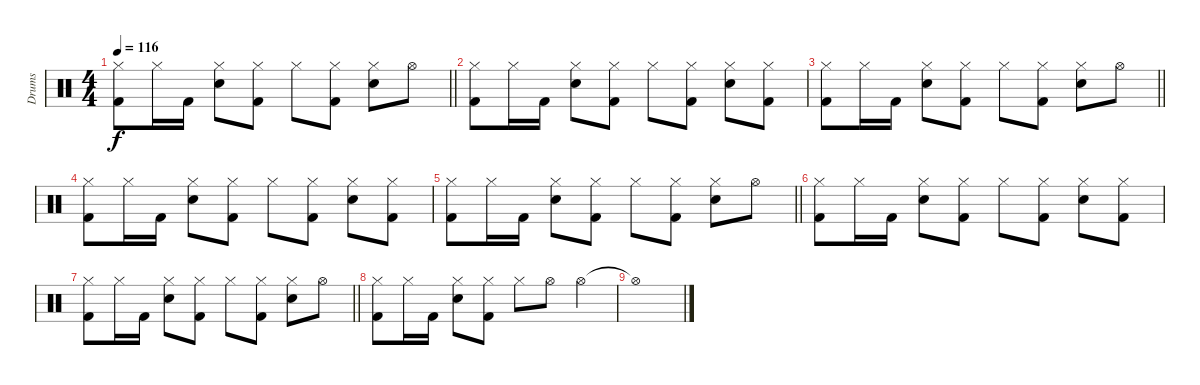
\track ("Drums" "Drums") {instrument percussion}
\staff {score}
\articulation defaults
\ts (4 4)
\tempo 116
\clef neutral
\barLineRight lightlight
\ks c
("Hi-Hat (closed)" "Kick (hit) 2").8{dy f} "Hi-Hat (closed)".16 "Kick (hit) 2".16 ("Hi-Hat (closed)" "Snare (hit) 2").8 ("Hi-Hat (closed)" "Kick (hit) 2").8 "Hi-Hat (closed)".8 ("Hi-Hat (closed)" "Kick (hit) 2").8 ("Hi-Hat (closed)" "Snare (hit) 2").8 "Hi-Hat (open)".8 |
("Hi-Hat (closed)" "Kick (hit) 2").8 "Hi-Hat (closed)".16 "Kick (hit) 2".16 ("Hi-Hat (closed)" "Snare (hit) 2").8 ("Hi-Hat (closed)" "Kick (hit) 2").8 "Hi-Hat (closed)".8 ("Hi-Hat (closed)" "Kick (hit) 2").8 ("Hi-Hat (closed)" "Snare (hit) 2").8 ("Hi-Hat (closed)" "Kick (hit) 2").8 |
\barLineRight lightlight
("Hi-Hat (closed)" "Kick (hit) 2").8 "Hi-Hat (closed)".16 "Kick (hit) 2".16 ("Hi-Hat (closed)" "Snare (hit) 2").8 ("Hi-Hat (closed)" "Kick (hit) 2").8 "Hi-Hat (closed)".8 ("Hi-Hat (closed)" "Kick (hit) 2").8 ("Hi-Hat (closed)" "Snare (hit) 2").8 "Hi-Hat (open)".8 |
("Hi-Hat (closed)" "Kick (hit) 2").8 "Hi-Hat (closed)".16 "Kick (hit) 2".16 ("Hi-Hat (closed)" "Snare (hit) 2").8 ("Hi-Hat (closed)" "Kick (hit) 2").8 "Hi-Hat (closed)".8 ("Hi-Hat (closed)" "Kick (hit) 2").8 ("Hi-Hat (closed)" "Snare (hit) 2").8 ("Hi-Hat (closed)" "Kick (hit) 2").8 |
\barLineRight lightlight
("Hi-Hat (closed)" "Kick (hit) 2").8 "Hi-Hat (closed)".16 "Kick (hit) 2".16 ("Hi-Hat (closed)" "Snare (hit) 2").8 ("Hi-Hat (closed)" "Kick (hit) 2").8 "Hi-Hat (closed)".8 ("Hi-Hat (closed)" "Kick (hit) 2").8 ("Hi-Hat (closed)" "Snare (hit) 2").8 "Hi-Hat (open)".8 |
("Hi-Hat (closed)" "Kick (hit) 2").8 "Hi-Hat (closed)".16 "Kick (hit) 2".16 ("Hi-Hat (closed)" "Snare (hit) 2").8 ("Hi-Hat (closed)" "Kick (hit) 2").8 "Hi-Hat (closed)".8 ("Hi-Hat (closed)" "Kick (hit) 2").8 ("Hi-Hat (closed)" "Snare (hit) 2").8 ("Hi-Hat (closed)" "Kick (hit) 2").8 |
\barLineRight lightlight
("Hi-Hat (closed)" "Kick (hit) 2").8 "Hi-Hat (closed)".16 "Kick (hit) 2".16 ("Hi-Hat (closed)" "Snare (hit) 2").8 ("Hi-Hat (closed)" "Kick (hit) 2").8 "Hi-Hat (closed)".8 ("Hi-Hat (closed)" "Kick (hit) 2").8 ("Hi-Hat (closed)" "Snare (hit) 2").8 "Hi-Hat (open)".8 |
("Hi-Hat (closed)" "Kick (hit) 2").8 "Hi-Hat (closed)".16 "Kick (hit) 2".16 ("Hi-Hat (closed)" "Snare (hit) 2").8 ("Hi-Hat (closed)" "Kick (hit) 2").8 "Hi-Hat (closed)".8 "Hi-Hat (open)".8 "Hi-Hat (open)".4 |
"Hi-Hat (open)"{t}.1
